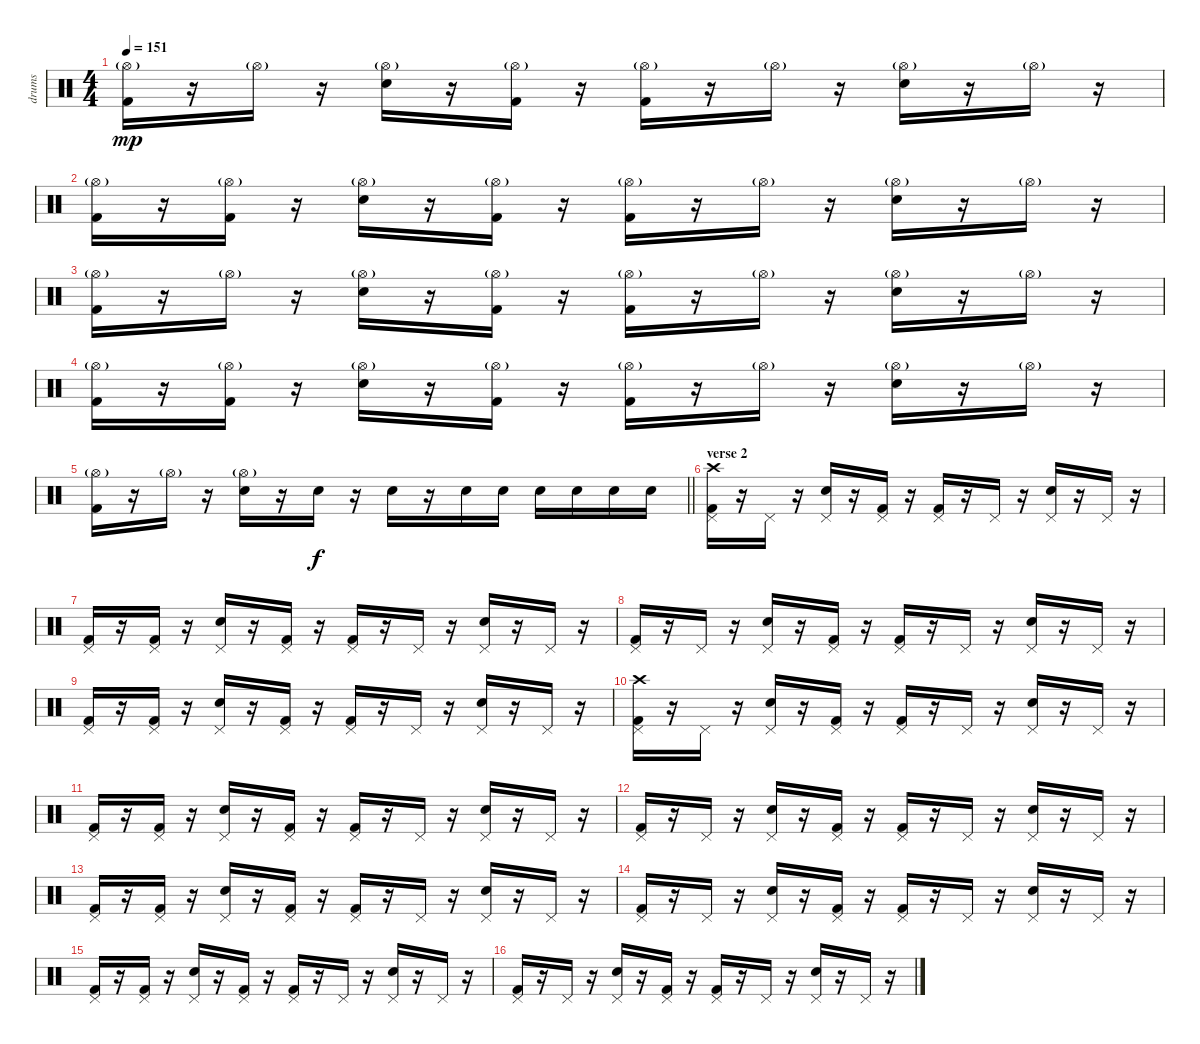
\track ("drums" "drums") {instrument percussion}
\staff {score}
\articulation defaults
\ts (4 4)
\tempo 151
\clef neutral
\ks c
("Kick (hit) 2" "Hi-Hat (open)"{g}).16{dy mp} r.16 "Hi-Hat (open)"{g}.16 r.16 ("Electric Snare (hit)" "Hi-Hat (open)"{g}).16 r.16 ("Kick (hit) 2" "Hi-Hat (open)"{g}).16 r.16 ("Kick (hit) 2" "Hi-Hat (open)"{g}).16 r.16 "Hi-Hat (open)"{g}.16 r.16 ("Electric Snare (hit)" "Hi-Hat (open)"{g}).16 r.16 "Hi-Hat (open)"{g}.16 r.16 |
("Kick (hit) 2" "Hi-Hat (open)"{g}).16 r.16 ("Kick (hit) 2" "Hi-Hat (open)"{g}).16 r.16 ("Electric Snare (hit)" "Hi-Hat (open)"{g}).16 r.16 ("Kick (hit) 2" "Hi-Hat (open)"{g}).16 r.16 ("Kick (hit) 2" "Hi-Hat (open)"{g}).16 r.16 "Hi-Hat (open)"{g}.16 r.16 ("Electric Snare (hit)" "Hi-Hat (open)"{g}).16 r.16 "Hi-Hat (open)"{g}.16 r.16 |
("Kick (hit) 2" "Hi-Hat (open)"{g}).16 r.16 "Hi-Hat (open)"{g}.16 r.16 ("Electric Snare (hit)" "Hi-Hat (open)"{g}).16 r.16 ("Kick (hit) 2" "Hi-Hat (open)"{g}).16 r.16 ("Kick (hit) 2" "Hi-Hat (open)"{g}).16 r.16 "Hi-Hat (open)"{g}.16 r.16 ("Electric Snare (hit)" "Hi-Hat (open)"{g}).16 r.16 "Hi-Hat (open)"{g}.16 r.16 |
("Kick (hit) 2" "Hi-Hat (open)"{g}).16 r.16 ("Kick (hit) 2" "Hi-Hat (open)"{g}).16 r.16 ("Electric Snare (hit)" "Hi-Hat (open)"{g}).16 r.16 ("Kick (hit) 2" "Hi-Hat (open)"{g}).16 r.16 ("Kick (hit) 2" "Hi-Hat (open)"{g}).16 r.16 "Hi-Hat (open)"{g}.16 r.16 ("Electric Snare (hit)" "Hi-Hat (open)"{g}).16 r.16 "Hi-Hat (open)"{g}.16 r.16 |
\barLineRight lightlight
("Kick (hit) 2" "Hi-Hat (open)"{g}).16 r.16 "Hi-Hat (open)"{g}.16 r.16 ("Electric Snare (hit)" "Hi-Hat (open)"{g}).16 r.16 "Electric Snare (hit)".16{dy f} r.16 "Electric Snare (hit)".16 r.16 "Electric Snare (hit)".16 "Electric Snare (hit)".16 "Electric Snare (hit)".16 "Electric Snare (hit)".16 "Electric Snare (hit)".16 "Electric Snare (hit)".16 |
\section ("" "verse 2")
("Kick (hit) 2" "Pedal Hi-Hat (hit)" "Crash high (hit)").16 r.16 "Pedal Hi-Hat (hit)".16 r.16 ("Electric Snare (hit)" "Pedal Hi-Hat (hit)").16 r.16 ("Kick (hit) 2" "Pedal Hi-Hat (hit)").16 r.16 ("Kick (hit) 2" "Pedal Hi-Hat (hit)").16 r.16 "Pedal Hi-Hat (hit)".16 r.16 ("Electric Snare (hit)" "Pedal Hi-Hat (hit)").16 r.16 "Pedal Hi-Hat (hit)".16 r.16 |
("Kick (hit) 2" "Pedal Hi-Hat (hit)").16 r.16 ("Kick (hit) 2" "Pedal Hi-Hat (hit)").16 r.16 ("Electric Snare (hit)" "Pedal Hi-Hat (hit)").16 r.16 ("Kick (hit) 2" "Pedal Hi-Hat (hit)").16 r.16 ("Kick (hit) 2" "Pedal Hi-Hat (hit)").16 r.16 "Pedal Hi-Hat (hit)".16 r.16 ("Electric Snare (hit)" "Pedal Hi-Hat (hit)").16 r.16 "Pedal Hi-Hat (hit)".16 r.16 |
("Kick (hit) 2" "Pedal Hi-Hat (hit)").16 r.16 "Pedal Hi-Hat (hit)".16 r.16 ("Electric Snare (hit)" "Pedal Hi-Hat (hit)").16 r.16 ("Kick (hit) 2" "Pedal Hi-Hat (hit)").16 r.16 ("Kick (hit) 2" "Pedal Hi-Hat (hit)").16 r.16 "Pedal Hi-Hat (hit)".16 r.16 ("Electric Snare (hit)" "Pedal Hi-Hat (hit)").16 r.16 "Pedal Hi-Hat (hit)".16 r.16 |
("Kick (hit) 2" "Pedal Hi-Hat (hit)").16 r.16 ("Kick (hit) 2" "Pedal Hi-Hat (hit)").16 r.16 ("Electric Snare (hit)" "Pedal Hi-Hat (hit)").16 r.16 ("Kick (hit) 2" "Pedal Hi-Hat (hit)").16 r.16 ("Kick (hit) 2" "Pedal Hi-Hat (hit)").16 r.16 "Pedal Hi-Hat (hit)".16 r.16 ("Electric Snare (hit)" "Pedal Hi-Hat (hit)").16 r.16 "Pedal Hi-Hat (hit)".16 r.16 |
("Kick (hit) 2" "Pedal Hi-Hat (hit)" "Crash high (hit)").16 r.16 "Pedal Hi-Hat (hit)".16 r.16 ("Electric Snare (hit)" "Pedal Hi-Hat (hit)").16 r.16 ("Kick (hit) 2" "Pedal Hi-Hat (hit)").16 r.16 ("Kick (hit) 2" "Pedal Hi-Hat (hit)").16 r.16 "Pedal Hi-Hat (hit)".16 r.16 ("Electric Snare (hit)" "Pedal Hi-Hat (hit)").16 r.16 "Pedal Hi-Hat (hit)".16 r.16 |
("Kick (hit) 2" "Pedal Hi-Hat (hit)").16 r.16 ("Kick (hit) 2" "Pedal Hi-Hat (hit)").16 r.16 ("Electric Snare (hit)" "Pedal Hi-Hat (hit)").16 r.16 ("Kick (hit) 2" "Pedal Hi-Hat (hit)").16 r.16 ("Kick (hit) 2" "Pedal Hi-Hat (hit)").16 r.16 "Pedal Hi-Hat (hit)".16 r.16 ("Electric Snare (hit)" "Pedal Hi-Hat (hit)").16 r.16 "Pedal Hi-Hat (hit)".16 r.16 |
("Kick (hit) 2" "Pedal Hi-Hat (hit)").16 r.16 "Pedal Hi-Hat (hit)".16 r.16 ("Electric Snare (hit)" "Pedal Hi-Hat (hit)").16 r.16 ("Kick (hit) 2" "Pedal Hi-Hat (hit)").16 r.16 ("Kick (hit) 2" "Pedal Hi-Hat (hit)").16 r.16 "Pedal Hi-Hat (hit)".16 r.16 ("Electric Snare (hit)" "Pedal Hi-Hat (hit)").16 r.16 "Pedal Hi-Hat (hit)".16 r.16 |
("Kick (hit) 2" "Pedal Hi-Hat (hit)").16 r.16 ("Kick (hit) 2" "Pedal Hi-Hat (hit)").16 r.16 ("Electric Snare (hit)" "Pedal Hi-Hat (hit)").16 r.16 ("Kick (hit) 2" "Pedal Hi-Hat (hit)").16 r.16 ("Kick (hit) 2" "Pedal Hi-Hat (hit)").16 r.16 "Pedal Hi-Hat (hit)".16 r.16 ("Electric Snare (hit)" "Pedal Hi-Hat (hit)").16 r.16 "Pedal Hi-Hat (hit)".16 r.16 |
("Kick (hit) 2" "Pedal Hi-Hat (hit)").16 r.16 "Pedal Hi-Hat (hit)".16 r.16 ("Electric Snare (hit)" "Pedal Hi-Hat (hit)").16 r.16 ("Kick (hit) 2" "Pedal Hi-Hat (hit)").16 r.16 ("Kick (hit) 2" "Pedal Hi-Hat (hit)").16 r.16 "Pedal Hi-Hat (hit)".16 r.16 ("Electric Snare (hit)" "Pedal Hi-Hat (hit)").16 r.16 "Pedal Hi-Hat (hit)".16 r.16 |
("Kick (hit) 2" "Pedal Hi-Hat (hit)").16 r.16 ("Kick (hit) 2" "Pedal Hi-Hat (hit)").16 r.16 ("Electric Snare (hit)" "Pedal Hi-Hat (hit)").16 r.16 ("Kick (hit) 2" "Pedal Hi-Hat (hit)").16 r.16 ("Kick (hit) 2" "Pedal Hi-Hat (hit)").16 r.16 "Pedal Hi-Hat (hit)".16 r.16 ("Electric Snare (hit)" "Pedal Hi-Hat (hit)").16 r.16 "Pedal Hi-Hat (hit)".16 r.16 |
("Kick (hit) 2" "Pedal Hi-Hat (hit)").16 r.16 "Pedal Hi-Hat (hit)".16 r.16 ("Electric Snare (hit)" "Pedal Hi-Hat (hit)").16 r.16 ("Kick (hit) 2" "Pedal Hi-Hat (hit)").16 r.16 ("Kick (hit) 2" "Pedal Hi-Hat (hit)").16 r.16 "Pedal Hi-Hat (hit)".16 r.16 ("Electric Snare (hit)" "Pedal Hi-Hat (hit)").16 r.16 "Pedal Hi-Hat (hit)".16 r.16
